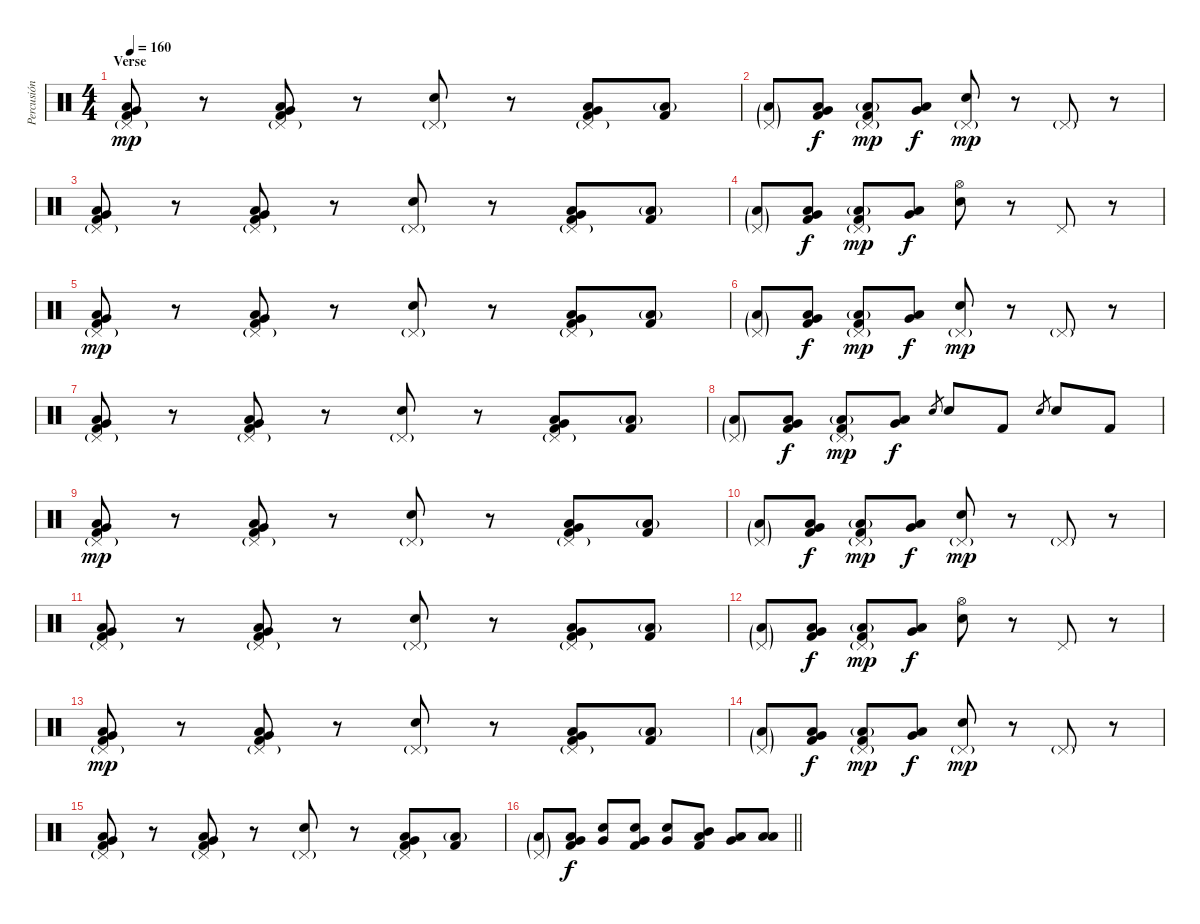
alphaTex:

\track ("Percusión" "Percusión") {instrument percussion}
\staff {score}
\articulation defaults
\ts (4 4)
\section ("" "Verse")
\tempo 160
\clef neutral
\ks c
("Pedal Hi-Hat (hit)"{g} "Very Low Tom (hit)" "Low Tom (hit)" "Kick (hit) 2").8{dy mp} r.8 ("Pedal Hi-Hat (hit)"{g} "Very Low Tom (hit)" "Low Tom (hit)" "Kick (hit) 2").8 r.8 ("Pedal Hi-Hat (hit)"{g} "Electric Snare (hit)").8 r.8 ("Pedal Hi-Hat (hit)"{g} "Very Low Tom (hit)" "Low Tom (hit)" "Kick (hit) 2").8 ("Low Floor Tom (hit)"{g} "Kick (hit) 2").8 |
("Pedal Hi-Hat (hit)"{g} "Low Floor Tom (hit)"{g}).8 ("Very Low Tom (hit)" "Low Tom (hit)" "Kick (hit) 2").8{dy f} ("Pedal Hi-Hat (hit)"{g} "Low Floor Tom (hit)"{g} "Kick (hit) 2").8{dy mp} ("Very Low Tom (hit)" "Low Tom (hit)").8{dy f} ("Pedal Hi-Hat (hit)"{g} "Electric Snare (hit)").8{dy mp} r.8 "Pedal Hi-Hat (hit)"{g}.8 r.8 |
("Pedal Hi-Hat (hit)"{g} "Very Low Tom (hit)" "Low Tom (hit)" "Kick (hit) 2").8 r.8 ("Pedal Hi-Hat (hit)"{g} "Very Low Tom (hit)" "Low Tom (hit)" "Kick (hit) 2").8 r.8 ("Pedal Hi-Hat (hit)"{g} "Electric Snare (hit)").8 r.8 ("Pedal Hi-Hat (hit)"{g} "Very Low Tom (hit)" "Low Tom (hit)" "Kick (hit) 2").8 ("Low Floor Tom (hit)"{g} "Kick (hit) 2").8 |
("Pedal Hi-Hat (hit)"{g} "Low Floor Tom (hit)"{g}).8 ("Very Low Tom (hit)" "Low Tom (hit)" "Kick (hit) 2").8{dy f} ("Pedal Hi-Hat (hit)"{g} "Low Floor Tom (hit)"{g} "Kick (hit) 2").8{dy mp} ("Very Low Tom (hit)" "Low Tom (hit)").8{dy f} ("Hi-Hat (open)" "Electric Snare (hit)").8 r.8 "Pedal Hi-Hat (hit)".8 r.8 |
("Pedal Hi-Hat (hit)"{g} "Very Low Tom (hit)" "Low Tom (hit)" "Kick (hit) 2").8{dy mp} r.8 ("Pedal Hi-Hat (hit)"{g} "Very Low Tom (hit)" "Low Tom (hit)" "Kick (hit) 2").8 r.8 ("Pedal Hi-Hat (hit)"{g} "Electric Snare (hit)").8 r.8 ("Pedal Hi-Hat (hit)"{g} "Very Low Tom (hit)" "Low Tom (hit)" "Kick (hit) 2").8 ("Low Floor Tom (hit)"{g} "Kick (hit) 2").8 |
("Pedal Hi-Hat (hit)"{g} "Low Floor Tom (hit)"{g}).8 ("Very Low Tom (hit)" "Low Tom (hit)" "Kick (hit) 2").8{dy f} ("Pedal Hi-Hat (hit)"{g} "Low Floor Tom (hit)"{g} "Kick (hit) 2").8{dy mp} ("Very Low Tom (hit)" "Low Tom (hit)").8{dy f} ("Pedal Hi-Hat (hit)"{g} "Electric Snare (hit)").8{dy mp} r.8 "Pedal Hi-Hat (hit)"{g}.8 r.8 |
("Pedal Hi-Hat (hit)"{g} "Very Low Tom (hit)" "Low Tom (hit)" "Kick (hit) 2").8 r.8 ("Pedal Hi-Hat (hit)"{g} "Very Low Tom (hit)" "Low Tom (hit)" "Kick (hit) 2").8 r.8 ("Pedal Hi-Hat (hit)"{g} "Electric Snare (hit)").8 r.8 ("Pedal Hi-Hat (hit)"{g} "Very Low Tom (hit)" "Low Tom (hit)" "Kick (hit) 2").8 ("Low Floor Tom (hit)"{g} "Kick (hit) 2").8 |
("Pedal Hi-Hat (hit)"{g} "Low Floor Tom (hit)"{g}).8 ("Very Low Tom (hit)" "Low Tom (hit)" "Kick (hit) 2").8{dy f} ("Pedal Hi-Hat (hit)"{g} "Low Floor Tom (hit)"{g} "Kick (hit) 2").8{dy mp} ("Very Low Tom (hit)" "Low Tom (hit)").8{dy f} "Electric Snare (hit)".8{gr} "Electric Snare (hit)".8 "Kick (hit) 2".8 "Electric Snare (hit)".8{gr} "Electric Snare (hit)".8 "Kick (hit) 2".8 |
("Pedal Hi-Hat (hit)"{g} "Very Low Tom (hit)" "Low Tom (hit)" "Kick (hit) 2").8{dy mp} r.8 ("Pedal Hi-Hat (hit)"{g} "Very Low Tom (hit)" "Low Tom (hit)" "Kick (hit) 2").8 r.8 ("Pedal Hi-Hat (hit)"{g} "Electric Snare (hit)").8 r.8 ("Pedal Hi-Hat (hit)"{g} "Very Low Tom (hit)" "Low Tom (hit)" "Kick (hit) 2").8 ("Low Floor Tom (hit)"{g} "Kick (hit) 2").8 |
("Pedal Hi-Hat (hit)"{g} "Low Floor Tom (hit)"{g}).8 ("Very Low Tom (hit)" "Low Tom (hit)" "Kick (hit) 2").8{dy f} ("Pedal Hi-Hat (hit)"{g} "Low Floor Tom (hit)"{g} "Kick (hit) 2").8{dy mp} ("Very Low Tom (hit)" "Low Tom (hit)").8{dy f} ("Pedal Hi-Hat (hit)"{g} "Electric Snare (hit)").8{dy mp} r.8 "Pedal Hi-Hat (hit)"{g}.8 r.8 |
("Pedal Hi-Hat (hit)"{g} "Very Low Tom (hit)" "Low Tom (hit)" "Kick (hit) 2").8 r.8 ("Pedal Hi-Hat (hit)"{g} "Very Low Tom (hit)" "Low Tom (hit)" "Kick (hit) 2").8 r.8 ("Pedal Hi-Hat (hit)"{g} "Electric Snare (hit)").8 r.8 ("Pedal Hi-Hat (hit)"{g} "Very Low Tom (hit)" "Low Tom (hit)" "Kick (hit) 2").8 ("Low Floor Tom (hit)"{g} "Kick (hit) 2").8 |
("Pedal Hi-Hat (hit)"{g} "Low Floor Tom (hit)"{g}).8 ("Very Low Tom (hit)" "Low Tom (hit)" "Kick (hit) 2").8{dy f} ("Pedal Hi-Hat (hit)"{g} "Low Floor Tom (hit)"{g} "Kick (hit) 2").8{dy mp} ("Very Low Tom (hit)" "Low Tom (hit)").8{dy f} ("Hi-Hat (open)" "Electric Snare (hit)").8 r.8 "Pedal Hi-Hat (hit)".8 r.8 |
("Pedal Hi-Hat (hit)"{g} "Very Low Tom (hit)" "Low Tom (hit)" "Kick (hit) 2").8{dy mp} r.8 ("Pedal Hi-Hat (hit)"{g} "Very Low Tom (hit)" "Low Tom (hit)" "Kick (hit) 2").8 r.8 ("Pedal Hi-Hat (hit)"{g} "Electric Snare (hit)").8 r.8 ("Pedal Hi-Hat (hit)"{g} "Very Low Tom (hit)" "Low Tom (hit)" "Kick (hit) 2").8 ("Low Floor Tom (hit)"{g} "Kick (hit) 2").8 |
("Pedal Hi-Hat (hit)"{g} "Low Floor Tom (hit)"{g}).8 ("Very Low Tom (hit)" "Low Tom (hit)" "Kick (hit) 2").8{dy f} ("Pedal Hi-Hat (hit)"{g} "Low Floor Tom (hit)"{g} "Kick (hit) 2").8{dy mp} ("Very Low Tom (hit)" "Low Tom (hit)").8{dy f} ("Pedal Hi-Hat (hit)"{g} "Electric Snare (hit)").8{dy mp} r.8 "Pedal Hi-Hat (hit)"{g}.8 r.8 |
("Pedal Hi-Hat (hit)"{g} "Very Low Tom (hit)" "Low Tom (hit)" "Kick (hit) 2").8 r.8 ("Pedal Hi-Hat (hit)"{g} "Very Low Tom (hit)" "Low Tom (hit)" "Kick (hit) 2").8 r.8 ("Pedal Hi-Hat (hit)"{g} "Electric Snare (hit)").8 r.8 ("Pedal Hi-Hat (hit)"{g} "Very Low Tom (hit)" "Low Tom (hit)" "Kick (hit) 2").8 ("Low Floor Tom (hit)"{g} "Kick (hit) 2").8 |
\barLineRight lightlight
("Pedal Hi-Hat (hit)"{g} "Low Floor Tom (hit)"{g}).8 ("Very Low Tom (hit)" "Low Tom (hit)" "Kick (hit) 2").8{dy f} ("Very Low Tom (hit)" "Electric Snare (hit)").8 ("Very Low Tom (hit)" "Electric Snare (hit)" "Kick (hit) 2").8 ("Very Low Tom (hit)" "Electric Snare (hit)").8 ("Mid Tom (hit)" "Low Tom (hit)" "Kick (hit) 2").8 ("Very Low Tom (hit)" "Low Tom (hit)").8 ("Low Floor Tom (hit)" "Low Tom (hit)").8
